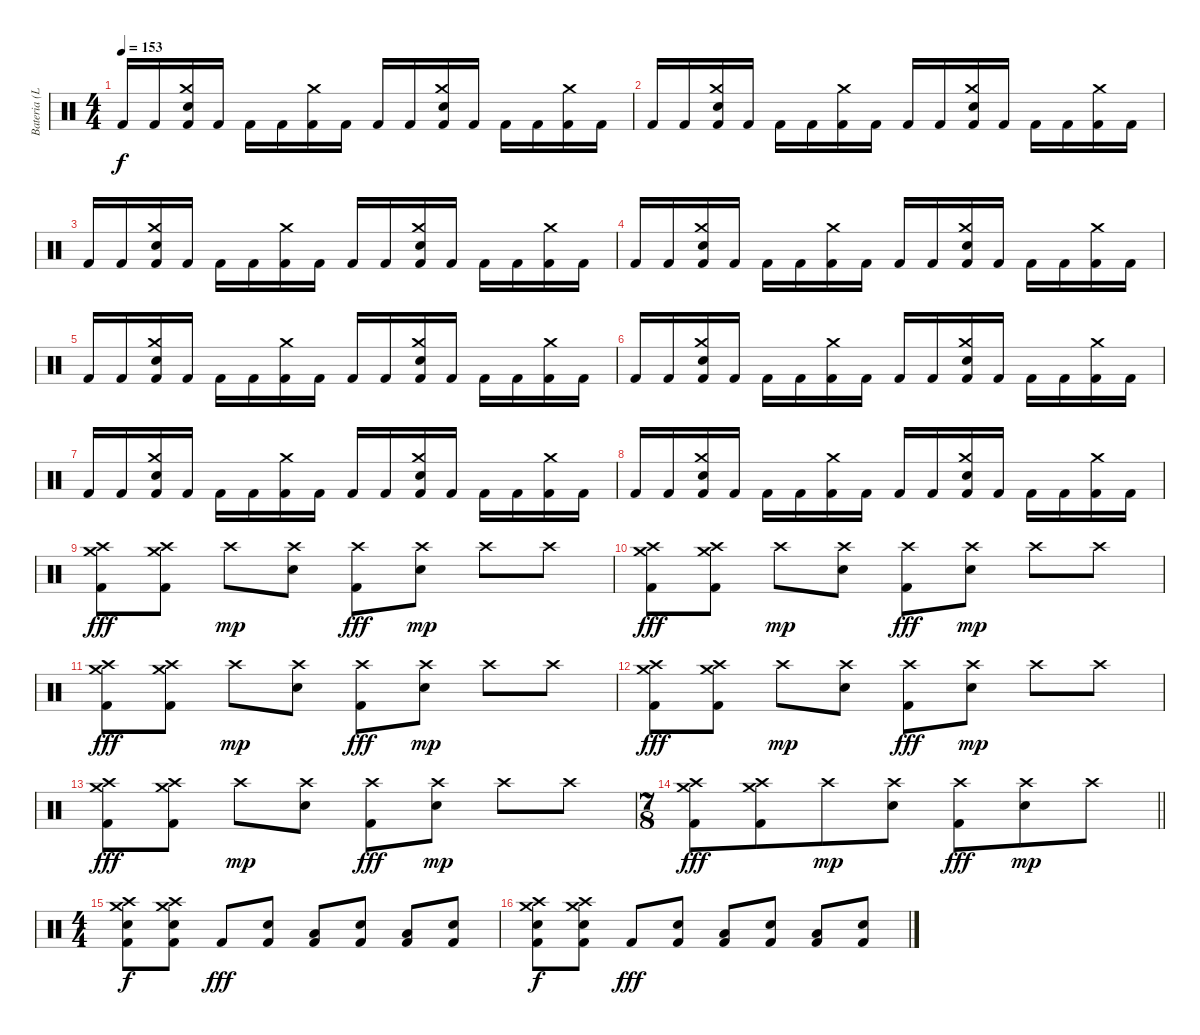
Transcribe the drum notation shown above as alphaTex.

\track ("Bateria (Lars)" "Bateria (L") {instrument percussion}
\staff {score}
\articulation defaults
\ts (4 4)
\tempo 153
\clef neutral
\ks c "Kick (hit) 2".16{dy f} "Kick (hit) 2".16
("Crash medium (hit)" "Electric Snare (hit)" "Kick (hit) 2").16 "Kick (hit) 2".16 "Kick (hit) 2".16 "Kick (hit) 2".16 ("Crash medium (hit)" "Kick (hit) 2").16 "Kick (hit) 2".16 "Kick (hit) 2".16 "Kick (hit) 2".16 ("Crash medium (hit)" "Electric Snare (hit)" "Kick (hit) 2").16 "Kick (hit) 2".16 "Kick (hit) 2".16 "Kick (hit) 2".16 ("Crash medium (hit)" "Kick (hit) 2").16 "Kick (hit) 2".16 |
"Kick (hit) 2".16 "Kick (hit) 2".16 ("Crash medium (hit)" "Electric Snare (hit)" "Kick (hit) 2").16 "Kick (hit) 2".16 "Kick (hit) 2".16 "Kick (hit) 2".16 ("Crash medium (hit)" "Kick (hit) 2").16 "Kick (hit) 2".16 "Kick (hit) 2".16 "Kick (hit) 2".16 ("Crash medium (hit)" "Electric Snare (hit)" "Kick (hit) 2").16 "Kick (hit) 2".16 "Kick (hit) 2".16 "Kick (hit) 2".16 ("Crash medium (hit)" "Kick (hit) 2").16 "Kick (hit) 2".16 |
"Kick (hit) 2".16 "Kick (hit) 2".16 ("Crash medium (hit)" "Electric Snare (hit)" "Kick (hit) 2").16 "Kick (hit) 2".16 "Kick (hit) 2".16 "Kick (hit) 2".16 ("Crash medium (hit)" "Kick (hit) 2").16 "Kick (hit) 2".16 "Kick (hit) 2".16 "Kick (hit) 2".16 ("Crash medium (hit)" "Electric Snare (hit)" "Kick (hit) 2").16 "Kick (hit) 2".16 "Kick (hit) 2".16 "Kick (hit) 2".16 ("Crash medium (hit)" "Kick (hit) 2").16 "Kick (hit) 2".16 |
"Kick (hit) 2".16 "Kick (hit) 2".16 ("Crash medium (hit)" "Electric Snare (hit)" "Kick (hit) 2").16 "Kick (hit) 2".16 "Kick (hit) 2".16 "Kick (hit) 2".16 ("Crash medium (hit)" "Kick (hit) 2").16 "Kick (hit) 2".16 "Kick (hit) 2".16 "Kick (hit) 2".16 ("Crash medium (hit)" "Electric Snare (hit)" "Kick (hit) 2").16 "Kick (hit) 2".16 "Kick (hit) 2".16 "Kick (hit) 2".16 ("Crash medium (hit)" "Kick (hit) 2").16 "Kick (hit) 2".16 |
"Kick (hit) 2".16 "Kick (hit) 2".16 ("Crash medium (hit)" "Electric Snare (hit)" "Kick (hit) 2").16 "Kick (hit) 2".16 "Kick (hit) 2".16 "Kick (hit) 2".16 ("Crash medium (hit)" "Kick (hit) 2").16 "Kick (hit) 2".16 "Kick (hit) 2".16 "Kick (hit) 2".16 ("Crash medium (hit)" "Electric Snare (hit)" "Kick (hit) 2").16 "Kick (hit) 2".16 "Kick (hit) 2".16 "Kick (hit) 2".16 ("Crash medium (hit)" "Kick (hit) 2").16 "Kick (hit) 2".16 |
"Kick (hit) 2".16 "Kick (hit) 2".16 ("Crash medium (hit)" "Electric Snare (hit)" "Kick (hit) 2").16 "Kick (hit) 2".16 "Kick (hit) 2".16 "Kick (hit) 2".16 ("Crash medium (hit)" "Kick (hit) 2").16 "Kick (hit) 2".16 "Kick (hit) 2".16 "Kick (hit) 2".16 ("Crash medium (hit)" "Electric Snare (hit)" "Kick (hit) 2").16 "Kick (hit) 2".16 "Kick (hit) 2".16 "Kick (hit) 2".16 ("Crash medium (hit)" "Kick (hit) 2").16 "Kick (hit) 2".16 |
"Kick (hit) 2".16 "Kick (hit) 2".16 ("Crash medium (hit)" "Electric Snare (hit)" "Kick (hit) 2").16 "Kick (hit) 2".16 "Kick (hit) 2".16 "Kick (hit) 2".16 ("Crash medium (hit)" "Kick (hit) 2").16 "Kick (hit) 2".16 "Kick (hit) 2".16 "Kick (hit) 2".16 ("Crash medium (hit)" "Electric Snare (hit)" "Kick (hit) 2").16 "Kick (hit) 2".16 "Kick (hit) 2".16 "Kick (hit) 2".16 ("Crash medium (hit)" "Kick (hit) 2").16 "Kick (hit) 2".16 |
"Kick (hit) 2".16 "Kick (hit) 2".16 ("Crash medium (hit)" "Electric Snare (hit)" "Kick (hit) 2").16 "Kick (hit) 2".16 "Kick (hit) 2".16 "Kick (hit) 2".16 ("Crash medium (hit)" "Kick (hit) 2").16 "Kick (hit) 2".16 "Kick (hit) 2".16 "Kick (hit) 2".16 ("Crash medium (hit)" "Electric Snare (hit)" "Kick (hit) 2").16 "Kick (hit) 2".16 "Kick (hit) 2".16 "Kick (hit) 2".16 ("Crash medium (hit)" "Kick (hit) 2").16 "Kick (hit) 2".16 |
("Crash high (hit)" "Crash medium (hit)" "Kick (hit) 2").8{dy fff} ("Crash high (hit)" "Crash medium (hit)" "Kick (hit) 2").8 "Crash high (hit)".8{dy mp} ("Crash high (hit)" "Electric Snare (hit)").8 ("Crash high (hit)" "Kick (hit) 2").8{dy fff} ("Crash high (hit)" "Electric Snare (hit)").8{dy mp} "Crash high (hit)".8 "Crash high (hit)".8 |
("Crash high (hit)" "Crash medium (hit)" "Kick (hit) 2").8{dy fff} ("Crash high (hit)" "Crash medium (hit)" "Kick (hit) 2").8 "Crash high (hit)".8{dy mp} ("Crash high (hit)" "Electric Snare (hit)").8 ("Crash high (hit)" "Kick (hit) 2").8{dy fff} ("Crash high (hit)" "Electric Snare (hit)").8{dy mp} "Crash high (hit)".8 "Crash high (hit)".8 |
("Crash high (hit)" "Crash medium (hit)" "Kick (hit) 2").8{dy fff} ("Crash high (hit)" "Crash medium (hit)" "Kick (hit) 2").8 "Crash high (hit)".8{dy mp} ("Crash high (hit)" "Electric Snare (hit)").8 ("Crash high (hit)" "Kick (hit) 2").8{dy fff} ("Crash high (hit)" "Electric Snare (hit)").8{dy mp} "Crash high (hit)".8 "Crash high (hit)".8 |
("Crash high (hit)" "Crash medium (hit)" "Kick (hit) 2").8{dy fff} ("Crash high (hit)" "Crash medium (hit)" "Kick (hit) 2").8 "Crash high (hit)".8{dy mp} ("Crash high (hit)" "Electric Snare (hit)").8 ("Crash high (hit)" "Kick (hit) 2").8{dy fff} ("Crash high (hit)" "Electric Snare (hit)").8{dy mp} "Crash high (hit)".8 "Crash high (hit)".8 |
("Crash high (hit)" "Crash medium (hit)" "Kick (hit) 2").8{dy fff} ("Crash high (hit)" "Crash medium (hit)" "Kick (hit) 2").8 "Crash high (hit)".8{dy mp} ("Crash high (hit)" "Electric Snare (hit)").8 ("Crash high (hit)" "Kick (hit) 2").8{dy fff} ("Crash high (hit)" "Electric Snare (hit)").8{dy mp} "Crash high (hit)".8 "Crash high (hit)".8 |
\ts (7 8)
\barLineRight lightlight
("Crash high (hit)" "Crash medium (hit)" "Kick (hit) 2").8{dy fff} ("Crash high (hit)" "Crash medium (hit)" "Kick (hit) 2").8 "Crash high (hit)".8{dy mp} ("Crash high (hit)" "Electric Snare (hit)").8 ("Crash high (hit)" "Kick (hit) 2").8{dy fff} ("Crash high (hit)" "Electric Snare (hit)").8{dy mp} "Crash high (hit)".8 |
\ts (4 4)
("Crash medium (hit)" "Crash high (hit)" "Electric Snare (hit)" "Kick (hit) 2").8{dy f} ("Crash medium (hit)" "Crash high (hit)" "Electric Snare (hit)" "Kick (hit) 2").8 "Kick (hit) 2".8{dy fff} ("Electric Snare (hit)" "Kick (hit) 2").8 ("Low Floor Tom (hit)" "Kick (hit) 2").8 ("Electric Snare (hit)" "Kick (hit) 2").8 ("Low Floor Tom (hit)" "Kick (hit) 2").8 ("Electric Snare (hit)" "Kick (hit) 2").8 |
("Crash medium (hit)" "Crash high (hit)" "Electric Snare (hit)" "Kick (hit) 2").8{dy f} ("Crash medium (hit)" "Crash high (hit)" "Electric Snare (hit)" "Kick (hit) 2").8 "Kick (hit) 2".8{dy fff} ("Electric Snare (hit)" "Kick (hit) 2").8 ("Low Floor Tom (hit)" "Kick (hit) 2").8 ("Electric Snare (hit)" "Kick (hit) 2").8 ("Low Floor Tom (hit)" "Kick (hit) 2").8 ("Electric Snare (hit)" "Kick (hit) 2").8
